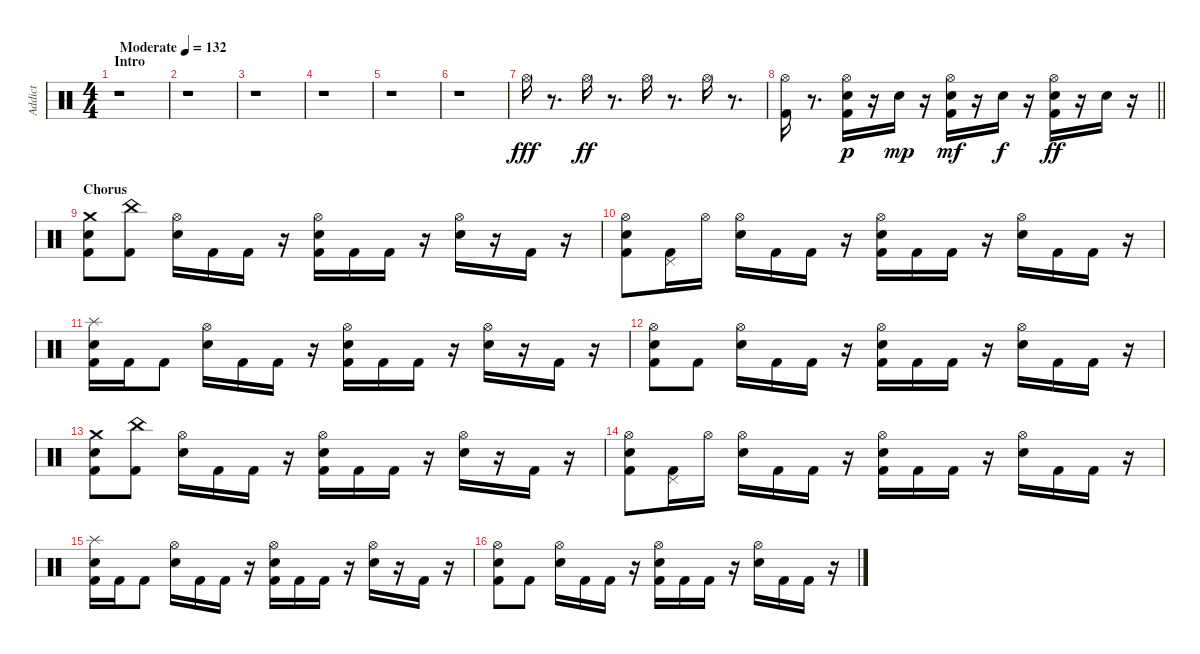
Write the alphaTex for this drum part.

\track ("Addict" "Addict") {instrument percussion}
\staff {score}
\articulation defaults
\ts (4 4)
\section ("" "Intro")
\tempo (132 "Moderate")
\clef neutral
\ks c
r.1{dy fff} |
r.1 |
r.1 |
r.1 |
r.1 |
r.1 |
"Hi-Hat (open)".16 r.8{d} "Hi-Hat (open)".16{dy ff} r.8{d} "Hi-Hat (open)".16 r.8{d} "Hi-Hat (open)".16 r.8{d} |
\barLineRight lightlight
("Kick (hit) 2" "Hi-Hat (open)").16 r.8{d} ("Kick (hit) 2" "Snare (hit) 2" "Hi-Hat (open)").16{dy p} r.16 "Snare (hit) 2".16{dy mp} r.16 ("Kick (hit) 2" "Snare (hit) 2" "Hi-Hat (open)").16{dy mf} r.16 "Snare (hit) 2".16{dy f} r.16 ("Kick (hit) 2" "Snare (hit) 2" "Hi-Hat (open)").16{dy ff} r.16 "Snare (hit) 2".16 r.16 |
\section ("" "Chorus")
("Kick (hit) 2" "Snare (hit) 2" "Crash medium (hit)").8 ("Kick (hit) 2" "China (hit)").8 ("Snare (hit) 2" "Hi-Hat (open)").16 "Kick (hit) 2".16 "Kick (hit) 2".16 r.16 ("Kick (hit) 2" "Snare (hit) 2" "Hi-Hat (open)").16 "Kick (hit) 2".16 "Kick (hit) 2".16 r.16 ("Snare (hit) 2" "Hi-Hat (open)").16 r.16 "Kick (hit) 2".16 r.16 |
("Kick (hit) 2" "Snare (hit) 2" "Hi-Hat (open)").8 ("Kick (hit) 2" "Pedal Hi-Hat (hit)").16 "Hi-Hat (open)".16 ("Snare (hit) 2" "Hi-Hat (open)").16 "Kick (hit) 2".16 "Kick (hit) 2".16 r.16 ("Kick (hit) 2" "Snare (hit) 2" "Hi-Hat (open)").16 "Kick (hit) 2".16 "Kick (hit) 2".16 r.16 ("Snare (hit) 2" "Hi-Hat (open)").16 "Kick (hit) 2".16 "Kick (hit) 2".16 r.16 |
("Kick (hit) 2" "Snare (hit) 2" "Splash (hit)").16 "Kick (hit) 2".16 "Kick (hit) 2".8 ("Snare (hit) 2" "Hi-Hat (open)").16 "Kick (hit) 2".16 "Kick (hit) 2".16 r.16 ("Kick (hit) 2" "Snare (hit) 2" "Hi-Hat (open)").16 "Kick (hit) 2".16 "Kick (hit) 2".16 r.16 ("Snare (hit) 2" "Hi-Hat (open)").16 r.16 "Kick (hit) 2".16 r.16 |
("Kick (hit) 2" "Snare (hit) 2" "Hi-Hat (open)").8 "Kick (hit) 2".8 ("Snare (hit) 2" "Hi-Hat (open)").16 "Kick (hit) 2".16 "Kick (hit) 2".16 r.16 ("Kick (hit) 2" "Snare (hit) 2" "Hi-Hat (open)").16 "Kick (hit) 2".16 "Kick (hit) 2".16 r.16 ("Snare (hit) 2" "Hi-Hat (open)").16 "Kick (hit) 2".16 "Kick (hit) 2".16 r.16 |
("Kick (hit) 2" "Snare (hit) 2" "Crash medium (hit)").8 ("Kick (hit) 2" "China (hit)").8 ("Snare (hit) 2" "Hi-Hat (open)").16 "Kick (hit) 2".16 "Kick (hit) 2".16 r.16 ("Kick (hit) 2" "Snare (hit) 2" "Hi-Hat (open)").16 "Kick (hit) 2".16 "Kick (hit) 2".16 r.16 ("Snare (hit) 2" "Hi-Hat (open)").16 r.16 "Kick (hit) 2".16 r.16 |
("Kick (hit) 2" "Snare (hit) 2" "Hi-Hat (open)").8 ("Kick (hit) 2" "Pedal Hi-Hat (hit)").16 "Hi-Hat (open)".16 ("Snare (hit) 2" "Hi-Hat (open)").16 "Kick (hit) 2".16 "Kick (hit) 2".16 r.16 ("Kick (hit) 2" "Snare (hit) 2" "Hi-Hat (open)").16 "Kick (hit) 2".16 "Kick (hit) 2".16 r.16 ("Snare (hit) 2" "Hi-Hat (open)").16 "Kick (hit) 2".16 "Kick (hit) 2".16 r.16 |
("Kick (hit) 2" "Snare (hit) 2" "Splash (hit)").16 "Kick (hit) 2".16 "Kick (hit) 2".8 ("Snare (hit) 2" "Hi-Hat (open)").16 "Kick (hit) 2".16 "Kick (hit) 2".16 r.16 ("Kick (hit) 2" "Snare (hit) 2" "Hi-Hat (open)").16 "Kick (hit) 2".16 "Kick (hit) 2".16 r.16 ("Snare (hit) 2" "Hi-Hat (open)").16 r.16 "Kick (hit) 2".16 r.16 |
("Kick (hit) 2" "Snare (hit) 2" "Hi-Hat (open)").8 "Kick (hit) 2".8 ("Snare (hit) 2" "Hi-Hat (open)").16 "Kick (hit) 2".16 "Kick (hit) 2".16 r.16 ("Kick (hit) 2" "Snare (hit) 2" "Hi-Hat (open)").16 "Kick (hit) 2".16 "Kick (hit) 2".16 r.16 ("Snare (hit) 2" "Hi-Hat (open)").16 "Kick (hit) 2".16 "Kick (hit) 2".16 r.16
